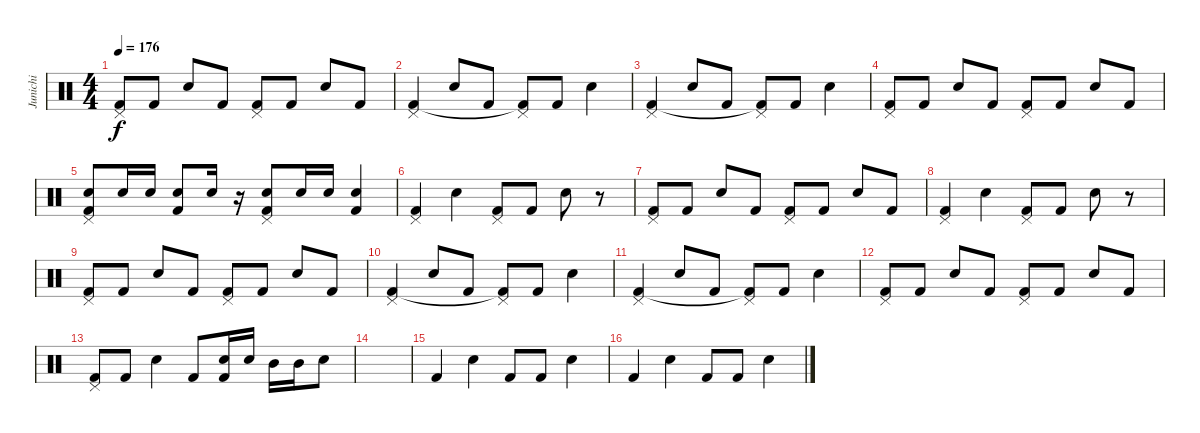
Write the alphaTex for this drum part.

\track ("Junichi" "Junichi") {instrument percussion}
\staff {score}
\articulation defaults
\ts (4 4)
\tempo 176
\clef neutral
\ks c
("Pedal Hi-Hat (hit)" "Kick (hit) 2").8{dy f} "Kick (hit) 2".8 "Snare (hit) 2".8 "Kick (hit) 2".8 ("Pedal Hi-Hat (hit)" "Kick (hit) 2").8 "Kick (hit) 2".8 "Snare (hit) 2".8 "Kick (hit) 2".8 |
("Pedal Hi-Hat (hit)" "Kick (hit) 2").4 "Snare (hit) 2".8 "Kick (hit) 2".8 ("Pedal Hi-Hat (hit)" "Kick (hit) 2"{t}).8 "Kick (hit) 2".8 "Snare (hit) 2".4 |
("Pedal Hi-Hat (hit)" "Kick (hit) 2").4 "Snare (hit) 2".8 "Kick (hit) 2".8 ("Pedal Hi-Hat (hit)" "Kick (hit) 2"{t}).8 "Kick (hit) 2".8 "Snare (hit) 2".4 |
("Pedal Hi-Hat (hit)" "Kick (hit) 2").8 "Kick (hit) 2".8 "Snare (hit) 2".8 "Kick (hit) 2".8 ("Pedal Hi-Hat (hit)" "Kick (hit) 2").8 "Kick (hit) 2".8 "Snare (hit) 2".8 "Kick (hit) 2".8 |
("Pedal Hi-Hat (hit)" "Snare (hit) 2" "Kick (hit) 2").8 "Snare (hit) 2".16 "Snare (hit) 2".16 ("Snare (hit) 2" "Kick (hit) 2").8 "Snare (hit) 2".16 r.16 ("Pedal Hi-Hat (hit)" "Snare (hit) 2" "Kick (hit) 2").8 "Snare (hit) 2".16 "Snare (hit) 2".16 ("Snare (hit) 2" "Kick (hit) 2").4 |
("Pedal Hi-Hat (hit)" "Kick (hit) 2").4 "Snare (hit) 2".4 ("Pedal Hi-Hat (hit)" "Kick (hit) 2").8 "Kick (hit) 2".8 "Snare (hit) 2".8 r.8 |
("Pedal Hi-Hat (hit)" "Kick (hit) 2").8 "Kick (hit) 2".8 "Snare (hit) 2".8 "Kick (hit) 2".8 ("Pedal Hi-Hat (hit)" "Kick (hit) 2").8 "Kick (hit) 2".8 "Snare (hit) 2".8 "Kick (hit) 2".8 |
("Pedal Hi-Hat (hit)" "Kick (hit) 2").4 "Snare (hit) 2".4 ("Pedal Hi-Hat (hit)" "Kick (hit) 2").8 "Kick (hit) 2".8 "Snare (hit) 2".8 r.8 |
("Pedal Hi-Hat (hit)" "Kick (hit) 2").8 "Kick (hit) 2".8 "Snare (hit) 2".8 "Kick (hit) 2".8 ("Pedal Hi-Hat (hit)" "Kick (hit) 2").8 "Kick (hit) 2".8 "Snare (hit) 2".8 "Kick (hit) 2".8 |
("Pedal Hi-Hat (hit)" "Kick (hit) 2").4 "Snare (hit) 2".8 "Kick (hit) 2".8 ("Pedal Hi-Hat (hit)" "Kick (hit) 2"{t}).8 "Kick (hit) 2".8 "Snare (hit) 2".4 |
("Pedal Hi-Hat (hit)" "Kick (hit) 2").4 "Snare (hit) 2".8 "Kick (hit) 2".8 ("Pedal Hi-Hat (hit)" "Kick (hit) 2"{t}).8 "Kick (hit) 2".8 "Snare (hit) 2".4 |
("Pedal Hi-Hat (hit)" "Kick (hit) 2").8 "Kick (hit) 2".8 "Snare (hit) 2".8 "Kick (hit) 2".8 ("Pedal Hi-Hat (hit)" "Kick (hit) 2").8 "Kick (hit) 2".8 "Snare (hit) 2".8 "Kick (hit) 2".8 |
("Pedal Hi-Hat (hit)" "Kick (hit) 2").8 "Kick (hit) 2".8 "Snare (hit) 2".4 "Kick (hit) 2".8 ("Snare (hit) 2" "Kick (hit) 2").16 "Snare (hit) 2".16 "Mid Tom (hit)".16 "Mid Tom (hit)".16 "Snare (hit) 2".8 |
|
"Kick (hit) 2".4 "Snare (hit) 2".4 "Kick (hit) 2".8 "Kick (hit) 2".8 "Snare (hit) 2".4 |
"Kick (hit) 2".4 "Snare (hit) 2".4 "Kick (hit) 2".8 "Kick (hit) 2".8 "Snare (hit) 2".4
